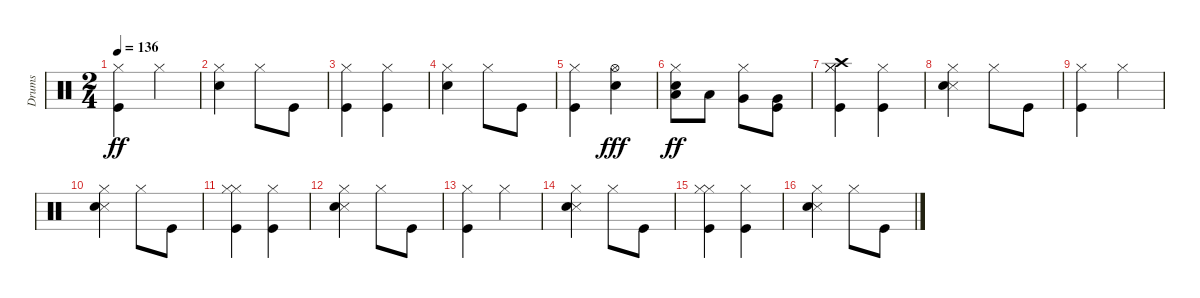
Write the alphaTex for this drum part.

\track ("Drums" "Drums") {instrument percussion}
\staff {score}
\articulation defaults
\ts (2 4)
\tempo 136
\clef neutral
\ks c
("Hi-Hat (closed)" "Kick (hit)").4{dy ff} "Hi-Hat (closed)".4 |
("Hi-Hat (closed)" "Snare (hit) 2").4 "Hi-Hat (closed)".8 "Kick (hit)".8 |
("Kick (hit)" "Hi-Hat (closed)").4 ("Kick (hit)" "Hi-Hat (closed)").4 |
("Hi-Hat (closed)" "Snare (hit) 2").4 "Hi-Hat (closed)".8 "Kick (hit)".8 |
("Hi-Hat (closed)" "Kick (hit)").4 ("Snare (hit) 2" "Hi-Hat (open)").4{dy fff} |
("Low Tom (hit)" "Hi-Hat (closed)" "Snare (hit) 2").8{dy ff} "Low Tom (hit)".8 ("Very Low Tom (hit)" "Hi-Hat (closed)").8 ("Very Low Tom (hit)" "Kick (hit)").8 |
("Crash high (hit)" "Kick (hit)" "Hi-Hat (closed)" "Hi-Hat (closed)").4 ("Kick (hit)" "Hi-Hat (closed)").4 |
("Snare (side stick) 3" "Hi-Hat (closed)" "Snare (hit) 2").4 "Hi-Hat (closed)".8 "Kick (hit)".8 |
("Kick (hit)" "Hi-Hat (closed)").4 "Hi-Hat (closed)".4 |
("Snare (side stick) 3" "Hi-Hat (closed)" "Snare (hit) 2").4 "Hi-Hat (closed)".8 "Kick (hit)".8 |
("Kick (hit)" "Hi-Hat (closed)" "Hi-Hat (closed)").4 ("Kick (hit)" "Hi-Hat (closed)").4 |
("Snare (side stick) 3" "Hi-Hat (closed)" "Snare (hit) 2").4 "Hi-Hat (closed)".8 "Kick (hit)".8 |
("Kick (hit)" "Hi-Hat (closed)").4 "Hi-Hat (closed)".4 |
("Snare (side stick) 3" "Hi-Hat (closed)" "Snare (hit) 2").4 "Hi-Hat (closed)".8 "Kick (hit)".8 |
("Kick (hit)" "Hi-Hat (closed)" "Hi-Hat (closed)").4 ("Kick (hit)" "Hi-Hat (closed)").4 |
("Snare (side stick) 3" "Hi-Hat (closed)" "Snare (hit) 2").4 "Hi-Hat (closed)".8 "Kick (hit)".8
